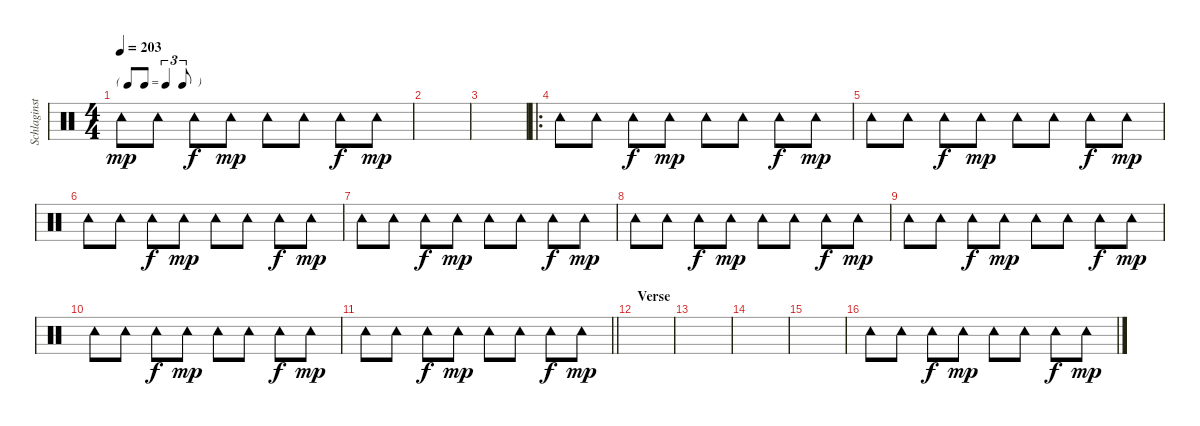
\track ("Schlaginstrumente - Auswahl" "Schlaginst") {instrument percussion}
\staff {score}
\articulation defaults
\ts (4 4)
\tf triplet8th
\tempo 203
\clef neutral
\ks c "Tambourine (hit)".8{dy mp} "Tambourine (hit)".8 "Tambourine (hit)".8{dy f} "Tambourine (hit)".8{dy mp} "Tambourine (hit)".8 "Tambourine (hit)".8 "Tambourine (hit)".8{dy f} "Tambourine (hit)".8{dy mp}
|
|
|
\ro "Tambourine (hit)".8 "Tambourine (hit)".8 "Tambourine (hit)".8{dy f} "Tambourine (hit)".8{dy mp} "Tambourine (hit)".8 "Tambourine (hit)".8 "Tambourine (hit)".8{dy f} "Tambourine (hit)".8{dy mp}
|
"Tambourine (hit)".8 "Tambourine (hit)".8 "Tambourine (hit)".8{dy f} "Tambourine (hit)".8{dy mp} "Tambourine (hit)".8 "Tambourine (hit)".8 "Tambourine (hit)".8{dy f} "Tambourine (hit)".8{dy mp} |
"Tambourine (hit)".8 "Tambourine (hit)".8 "Tambourine (hit)".8{dy f} "Tambourine (hit)".8{dy mp} "Tambourine (hit)".8 "Tambourine (hit)".8 "Tambourine (hit)".8{dy f} "Tambourine (hit)".8{dy mp} |
"Tambourine (hit)".8 "Tambourine (hit)".8 "Tambourine (hit)".8{dy f} "Tambourine (hit)".8{dy mp} "Tambourine (hit)".8 "Tambourine (hit)".8 "Tambourine (hit)".8{dy f} "Tambourine (hit)".8{dy mp} |
"Tambourine (hit)".8 "Tambourine (hit)".8 "Tambourine (hit)".8{dy f} "Tambourine (hit)".8{dy mp} "Tambourine (hit)".8 "Tambourine (hit)".8 "Tambourine (hit)".8{dy f} "Tambourine (hit)".8{dy mp} |
"Tambourine (hit)".8 "Tambourine (hit)".8 "Tambourine (hit)".8{dy f} "Tambourine (hit)".8{dy mp} "Tambourine (hit)".8 "Tambourine (hit)".8 "Tambourine (hit)".8{dy f} "Tambourine (hit)".8{dy mp} |
"Tambourine (hit)".8 "Tambourine (hit)".8 "Tambourine (hit)".8{dy f} "Tambourine (hit)".8{dy mp} "Tambourine (hit)".8 "Tambourine (hit)".8 "Tambourine (hit)".8{dy f} "Tambourine (hit)".8{dy mp} |
\barLineRight lightlight "Tambourine (hit)".8 "Tambourine (hit)".8 "Tambourine (hit)".8{dy f} "Tambourine (hit)".8{dy mp} "Tambourine (hit)".8 "Tambourine (hit)".8 "Tambourine (hit)".8{dy f} "Tambourine (hit)".8{dy mp}
|
\section ("" "Verse")
|
|
|
|
"Tambourine (hit)".8 "Tambourine (hit)".8 "Tambourine (hit)".8{dy f} "Tambourine (hit)".8{dy mp} "Tambourine (hit)".8 "Tambourine (hit)".8 "Tambourine (hit)".8{dy f} "Tambourine (hit)".8{dy mp}
